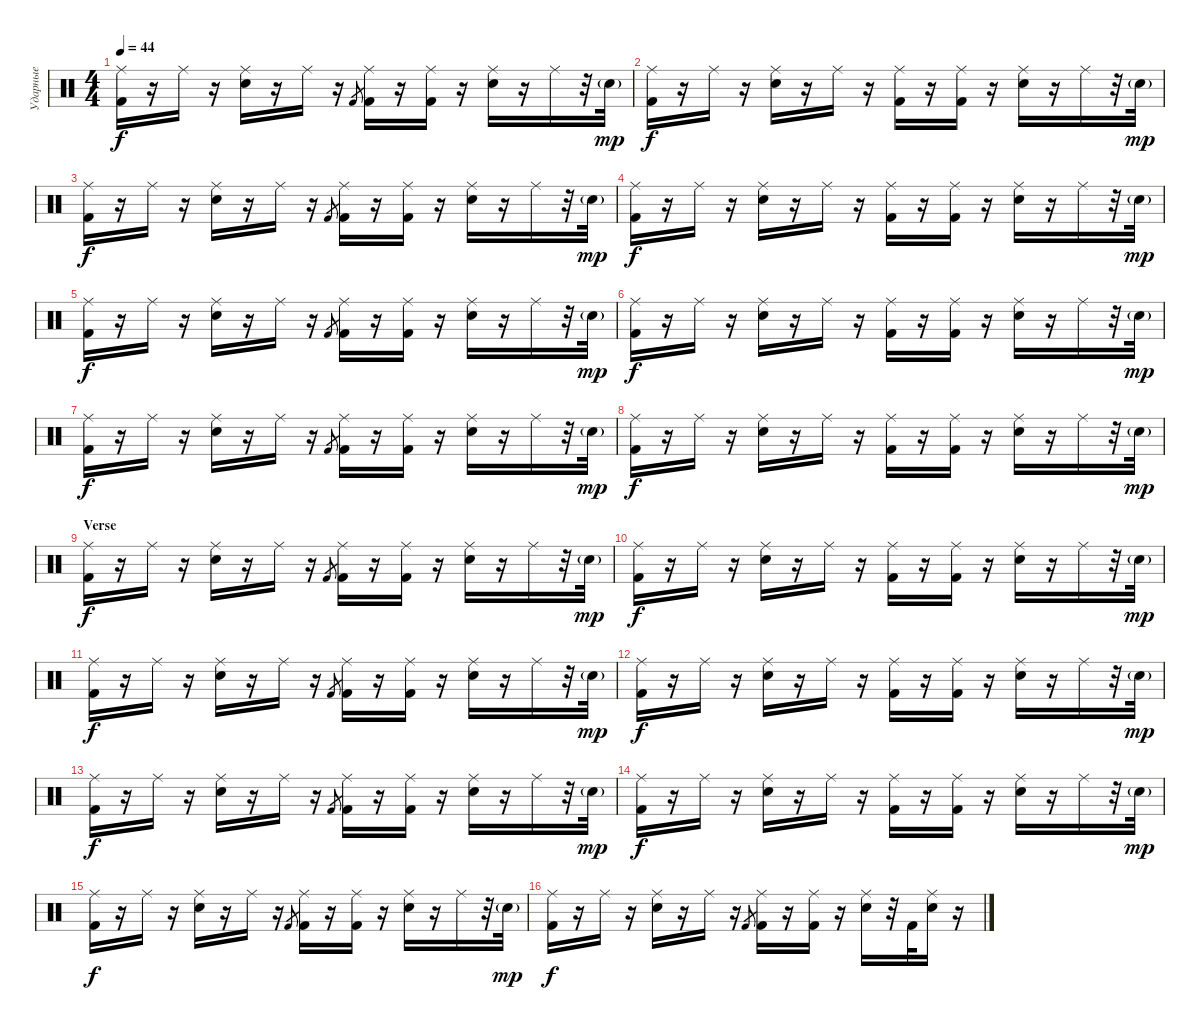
\track ("Ударные" "Ударные") {instrument percussion}
\staff {score}
\articulation defaults
\ts (4 4)
\tempo 44
\clef neutral
\ks c
("Ride (middle)" "Kick (hit) 2").16{dy f} r.16 "Ride (middle)".16 r.16 ("Ride (middle)" "Electric Snare (hit)").16 r.16 "Ride (middle)".16 r.16 "Kick (hit) 2".8{gr} ("Ride (middle)" "Kick (hit) 2").16 r.16 ("Ride (middle)" "Kick (hit) 2").16 r.16 ("Ride (middle)" "Electric Snare (hit)").16 r.16 "Ride (middle)".16 r.32 "Electric Snare (hit)"{g}.32{dy mp} |
("Ride (middle)" "Kick (hit) 2").16{dy f} r.16 "Ride (middle)".16 r.16 ("Ride (middle)" "Electric Snare (hit)").16 r.16 "Ride (middle)".16 r.16 ("Ride (middle)" "Kick (hit) 2").16 r.16 ("Ride (middle)" "Kick (hit) 2").16 r.16 ("Ride (middle)" "Electric Snare (hit)").16 r.16 "Ride (middle)".16 r.32 "Electric Snare (hit)"{g}.32{dy mp} |
("Ride (middle)" "Kick (hit) 2").16{dy f} r.16 "Ride (middle)".16 r.16 ("Ride (middle)" "Electric Snare (hit)").16 r.16 "Ride (middle)".16 r.16 "Kick (hit) 2".8{gr} ("Ride (middle)" "Kick (hit) 2").16 r.16 ("Ride (middle)" "Kick (hit) 2").16 r.16 ("Ride (middle)" "Electric Snare (hit)").16 r.16 "Ride (middle)".16 r.32 "Electric Snare (hit)"{g}.32{dy mp} |
("Ride (middle)" "Kick (hit) 2").16{dy f} r.16 "Ride (middle)".16 r.16 ("Ride (middle)" "Electric Snare (hit)").16 r.16 "Ride (middle)".16 r.16 ("Ride (middle)" "Kick (hit) 2").16 r.16 ("Ride (middle)" "Kick (hit) 2").16 r.16 ("Ride (middle)" "Electric Snare (hit)").16 r.16 "Ride (middle)".16 r.32 "Electric Snare (hit)"{g}.32{dy mp} |
("Ride (middle)" "Kick (hit) 2").16{dy f} r.16 "Ride (middle)".16 r.16 ("Ride (middle)" "Electric Snare (hit)").16 r.16 "Ride (middle)".16 r.16 "Kick (hit) 2".8{gr} ("Ride (middle)" "Kick (hit) 2").16 r.16 ("Ride (middle)" "Kick (hit) 2").16 r.16 ("Ride (middle)" "Electric Snare (hit)").16 r.16 "Ride (middle)".16 r.32 "Electric Snare (hit)"{g}.32{dy mp} |
("Ride (middle)" "Kick (hit) 2").16{dy f} r.16 "Ride (middle)".16 r.16 ("Ride (middle)" "Electric Snare (hit)").16 r.16 "Ride (middle)".16 r.16 ("Ride (middle)" "Kick (hit) 2").16 r.16 ("Ride (middle)" "Kick (hit) 2").16 r.16 ("Ride (middle)" "Electric Snare (hit)").16 r.16 "Ride (middle)".16 r.32 "Electric Snare (hit)"{g}.32{dy mp} |
("Ride (middle)" "Kick (hit) 2").16{dy f} r.16 "Ride (middle)".16 r.16 ("Ride (middle)" "Electric Snare (hit)").16 r.16 "Ride (middle)".16 r.16 "Kick (hit) 2".8{gr} ("Ride (middle)" "Kick (hit) 2").16 r.16 ("Ride (middle)" "Kick (hit) 2").16 r.16 ("Ride (middle)" "Electric Snare (hit)").16 r.16 "Ride (middle)".16 r.32 "Electric Snare (hit)"{g}.32{dy mp} |
("Ride (middle)" "Kick (hit) 2").16{dy f} r.16 "Ride (middle)".16 r.16 ("Ride (middle)" "Electric Snare (hit)").16 r.16 "Ride (middle)".16 r.16 ("Ride (middle)" "Kick (hit) 2").16 r.16 ("Ride (middle)" "Kick (hit) 2").16 r.16 ("Ride (middle)" "Electric Snare (hit)").16 r.16 "Ride (middle)".16 r.32 "Electric Snare (hit)"{g}.32{dy mp} |
\section ("" "Verse")
("Ride (middle)" "Kick (hit) 2").16{dy f} r.16 "Ride (middle)".16 r.16 ("Ride (middle)" "Electric Snare (hit)").16 r.16 "Ride (middle)".16 r.16 "Kick (hit) 2".8{gr} ("Ride (middle)" "Kick (hit) 2").16 r.16 ("Ride (middle)" "Kick (hit) 2").16 r.16 ("Ride (middle)" "Electric Snare (hit)").16 r.16 "Ride (middle)".16 r.32 "Electric Snare (hit)"{g}.32{dy mp} |
("Ride (middle)" "Kick (hit) 2").16{dy f} r.16 "Ride (middle)".16 r.16 ("Ride (middle)" "Electric Snare (hit)").16 r.16 "Ride (middle)".16 r.16 ("Ride (middle)" "Kick (hit) 2").16 r.16 ("Ride (middle)" "Kick (hit) 2").16 r.16 ("Ride (middle)" "Electric Snare (hit)").16 r.16 "Ride (middle)".16 r.32 "Electric Snare (hit)"{g}.32{dy mp} |
("Ride (middle)" "Kick (hit) 2").16{dy f} r.16 "Ride (middle)".16 r.16 ("Ride (middle)" "Electric Snare (hit)").16 r.16 "Ride (middle)".16 r.16 "Kick (hit) 2".8{gr} ("Ride (middle)" "Kick (hit) 2").16 r.16 ("Ride (middle)" "Kick (hit) 2").16 r.16 ("Ride (middle)" "Electric Snare (hit)").16 r.16 "Ride (middle)".16 r.32 "Electric Snare (hit)"{g}.32{dy mp} |
("Ride (middle)" "Kick (hit) 2").16{dy f} r.16 "Ride (middle)".16 r.16 ("Ride (middle)" "Electric Snare (hit)").16 r.16 "Ride (middle)".16 r.16 ("Ride (middle)" "Kick (hit) 2").16 r.16 ("Ride (middle)" "Kick (hit) 2").16 r.16 ("Ride (middle)" "Electric Snare (hit)").16 r.16 "Ride (middle)".16 r.32 "Electric Snare (hit)"{g}.32{dy mp} |
("Ride (middle)" "Kick (hit) 2").16{dy f} r.16 "Ride (middle)".16 r.16 ("Ride (middle)" "Electric Snare (hit)").16 r.16 "Ride (middle)".16 r.16 "Kick (hit) 2".8{gr} ("Ride (middle)" "Kick (hit) 2").16 r.16 ("Ride (middle)" "Kick (hit) 2").16 r.16 ("Ride (middle)" "Electric Snare (hit)").16 r.16 "Ride (middle)".16 r.32 "Electric Snare (hit)"{g}.32{dy mp} |
("Ride (middle)" "Kick (hit) 2").16{dy f} r.16 "Ride (middle)".16 r.16 ("Ride (middle)" "Electric Snare (hit)").16 r.16 "Ride (middle)".16 r.16 ("Ride (middle)" "Kick (hit) 2").16 r.16 ("Ride (middle)" "Kick (hit) 2").16 r.16 ("Ride (middle)" "Electric Snare (hit)").16 r.16 "Ride (middle)".16 r.32 "Electric Snare (hit)"{g}.32{dy mp} |
("Ride (middle)" "Kick (hit) 2").16{dy f} r.16 "Ride (middle)".16 r.16 ("Ride (middle)" "Electric Snare (hit)").16 r.16 "Ride (middle)".16 r.16 "Kick (hit) 2".8{gr} ("Ride (middle)" "Kick (hit) 2").16 r.16 ("Ride (middle)" "Kick (hit) 2").16 r.16 ("Ride (middle)" "Electric Snare (hit)").16 r.16 "Ride (middle)".16 r.32 "Electric Snare (hit)"{g}.32{dy mp} |
("Ride (middle)" "Kick (hit) 2").16{dy f} r.16 "Ride (middle)".16 r.16 ("Ride (middle)" "Electric Snare (hit)").16 r.16 "Ride (middle)".16 r.16 "Kick (hit) 2".8{gr} ("Ride (middle)" "Kick (hit) 2").16 r.16 ("Ride (middle)" "Kick (hit) 2").16 r.16 ("Ride (middle)" "Electric Snare (hit)").16 r.32 "Kick (hit) 2".32 ("Ride (middle)" "Electric Snare (hit)").16 r.16
